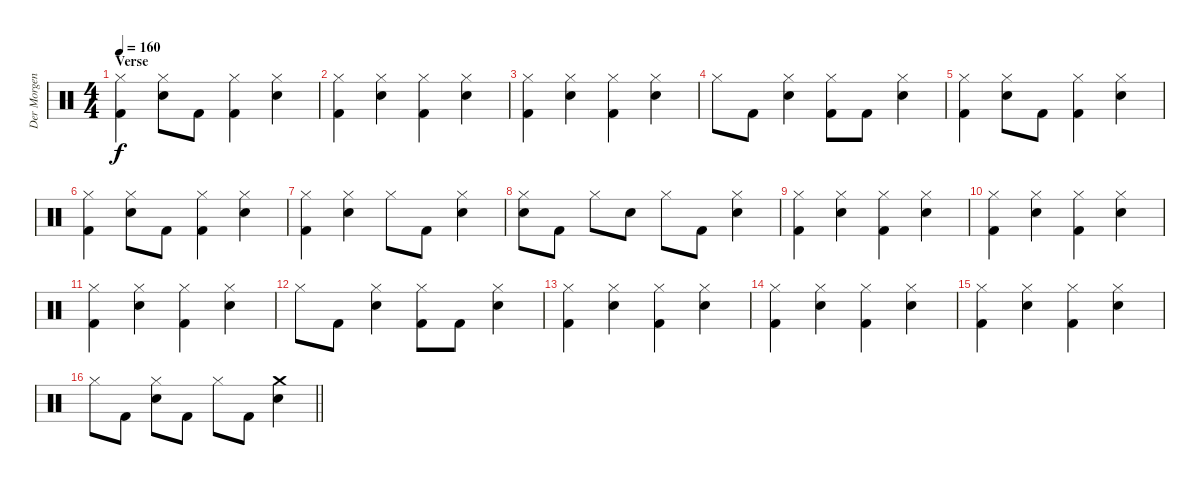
\track ("Der Morgenstern" "Der Morgen") {instrument percussion}
\staff {score}
\articulation defaults
\ts (4 4)
\section ("" "Verse")
\tempo 160
\clef neutral
\ks c
("Hi-Hat (closed)" "Kick (hit) 2").4{dy f} ("Hi-Hat (closed)" "Electric Snare (hit)").8 "Kick (hit) 2".8 ("Hi-Hat (closed)" "Kick (hit) 2").4 ("Hi-Hat (closed)" "Electric Snare (hit)").4 |
("Hi-Hat (closed)" "Kick (hit) 2").4 ("Hi-Hat (closed)" "Electric Snare (hit)").4 ("Hi-Hat (closed)" "Kick (hit) 2").4 ("Hi-Hat (closed)" "Electric Snare (hit)").4 |
("Hi-Hat (closed)" "Kick (hit) 2").4 ("Hi-Hat (closed)" "Electric Snare (hit)").4 ("Hi-Hat (closed)" "Kick (hit) 2").4 ("Hi-Hat (closed)" "Electric Snare (hit)").4 |
"Hi-Hat (closed)".8 "Kick (hit) 2".8 ("Hi-Hat (closed)" "Electric Snare (hit)").4 ("Hi-Hat (closed)" "Kick (hit) 2").8 "Kick (hit) 2".8 ("Hi-Hat (closed)" "Electric Snare (hit)").4 |
("Hi-Hat (closed)" "Kick (hit) 2").4 ("Hi-Hat (closed)" "Electric Snare (hit)").8 "Kick (hit) 2".8 ("Hi-Hat (closed)" "Kick (hit) 2").4 ("Hi-Hat (closed)" "Electric Snare (hit)").4 |
("Hi-Hat (closed)" "Kick (hit) 2").4 ("Hi-Hat (closed)" "Electric Snare (hit)").8 "Kick (hit) 2".8 ("Hi-Hat (closed)" "Kick (hit) 2").4 ("Hi-Hat (closed)" "Electric Snare (hit)").4 |
("Hi-Hat (closed)" "Kick (hit) 2").4 ("Hi-Hat (closed)" "Electric Snare (hit)").4 "Hi-Hat (closed)".8 "Kick (hit) 2".8 ("Hi-Hat (closed)" "Electric Snare (hit)").4 |
("Hi-Hat (closed)" "Electric Snare (hit)").8 "Kick (hit) 2".8 "Hi-Hat (closed)".8 "Electric Snare (hit)".8 "Hi-Hat (closed)".8 "Kick (hit) 2".8 ("Hi-Hat (closed)" "Electric Snare (hit)").4 |
("Hi-Hat (closed)" "Kick (hit) 2").4 ("Hi-Hat (closed)" "Electric Snare (hit)").4 ("Hi-Hat (closed)" "Kick (hit) 2").4 ("Hi-Hat (closed)" "Electric Snare (hit)").4 |
("Hi-Hat (closed)" "Kick (hit) 2").4 ("Hi-Hat (closed)" "Electric Snare (hit)").4 ("Hi-Hat (closed)" "Kick (hit) 2").4 ("Hi-Hat (closed)" "Electric Snare (hit)").4 |
("Hi-Hat (closed)" "Kick (hit) 2").4 ("Hi-Hat (closed)" "Electric Snare (hit)").4 ("Hi-Hat (closed)" "Kick (hit) 2").4 ("Hi-Hat (closed)" "Electric Snare (hit)").4 |
"Hi-Hat (closed)".8 "Kick (hit) 2".8 ("Hi-Hat (closed)" "Electric Snare (hit)").4 ("Hi-Hat (closed)" "Kick (hit) 2").8 "Kick (hit) 2".8 ("Hi-Hat (closed)" "Electric Snare (hit)").4 |
("Hi-Hat (closed)" "Kick (hit) 2").4 ("Hi-Hat (closed)" "Electric Snare (hit)").4 ("Hi-Hat (closed)" "Kick (hit) 2").4 ("Hi-Hat (closed)" "Electric Snare (hit)").4 |
("Hi-Hat (closed)" "Kick (hit) 2").4 ("Hi-Hat (closed)" "Electric Snare (hit)").4 ("Hi-Hat (closed)" "Kick (hit) 2").4 ("Hi-Hat (closed)" "Electric Snare (hit)").4 |
("Hi-Hat (closed)" "Kick (hit) 2").4 ("Hi-Hat (closed)" "Electric Snare (hit)").4 ("Hi-Hat (closed)" "Kick (hit) 2").4 ("Hi-Hat (closed)" "Electric Snare (hit)").4 |
\barLineRight lightlight "Hi-Hat (closed)".8 "Kick (hit) 2".8
("Hi-Hat (closed)" "Electric Snare (hit)").8 "Kick (hit) 2".8 "Hi-Hat (closed)".8 "Kick (hit) 2".8 ("Crash medium (hit)" "Electric Snare (hit)").4
